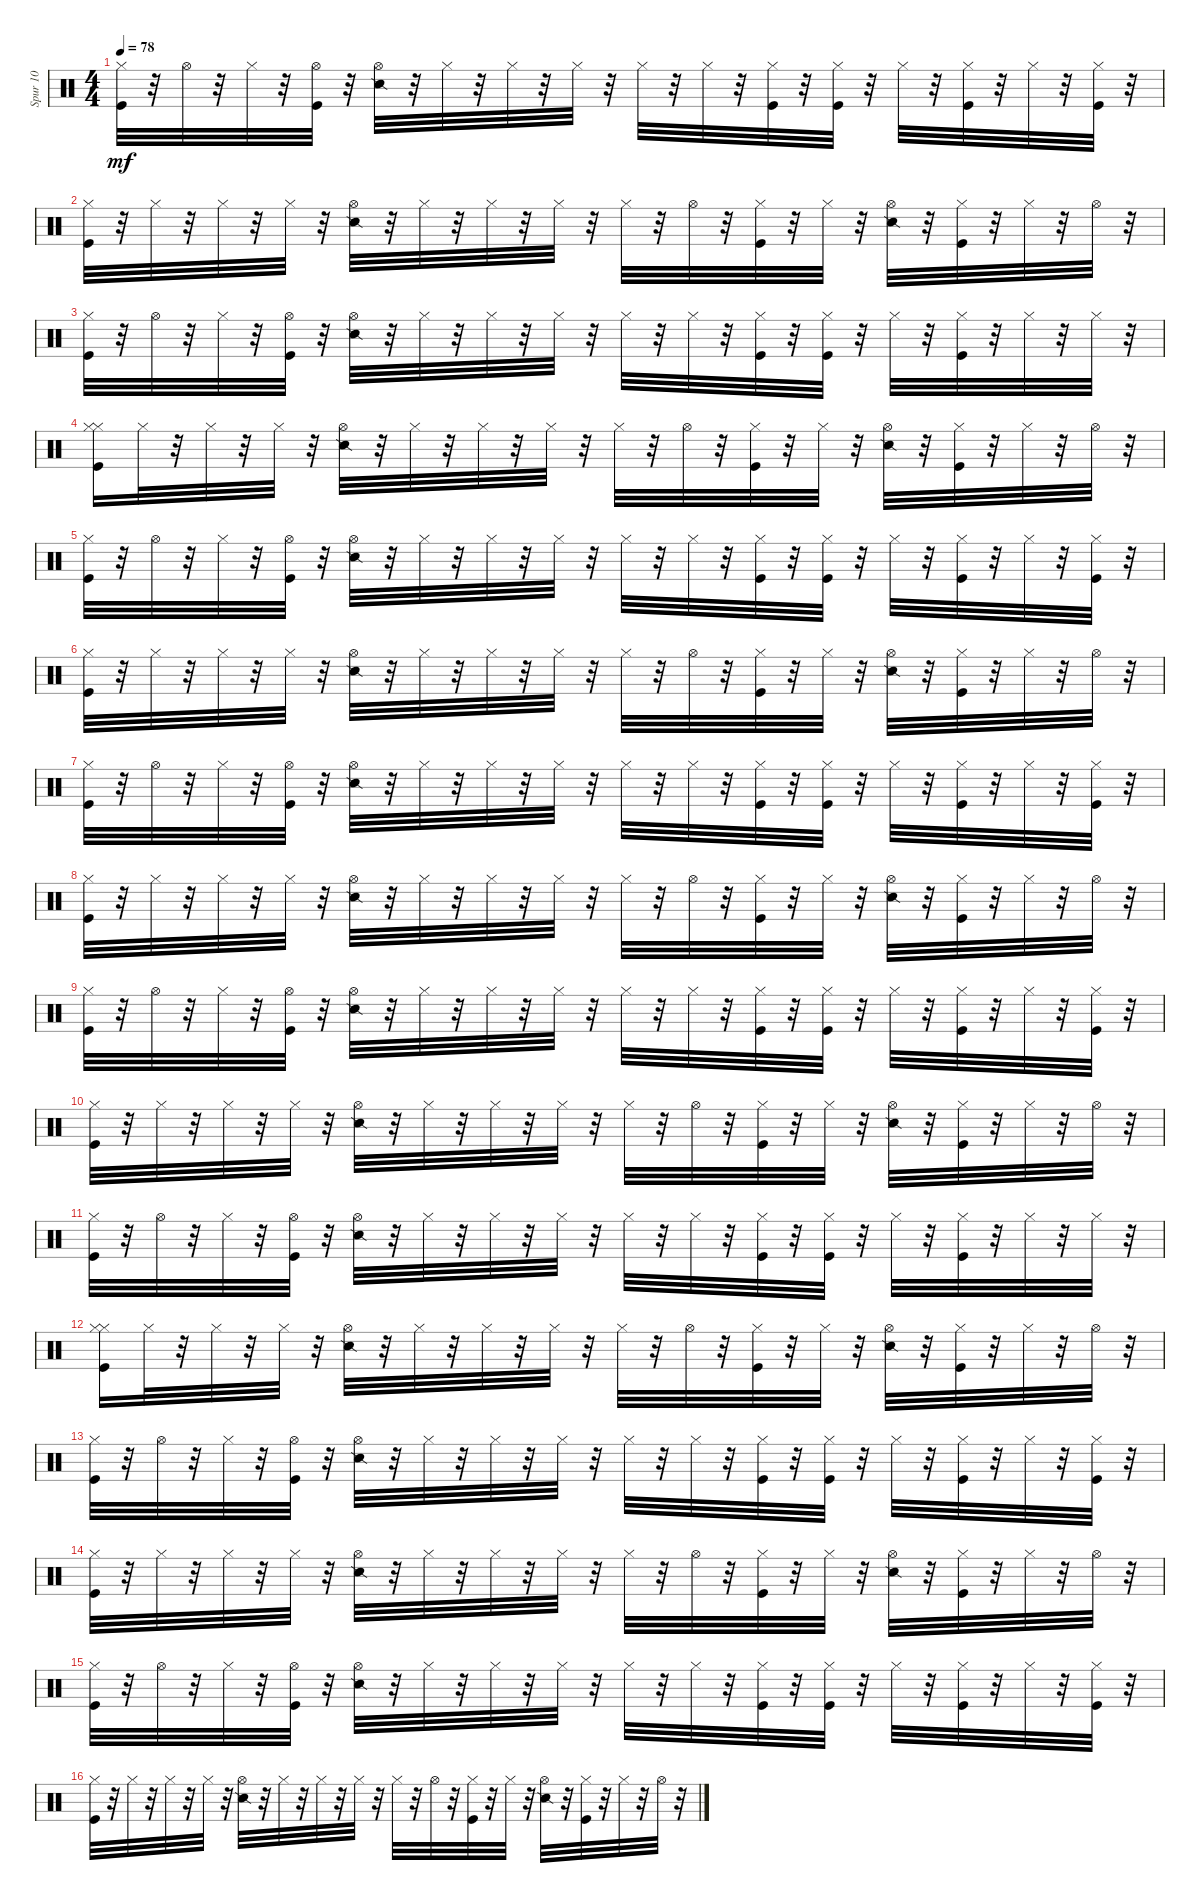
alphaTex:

\track ("Spur 10" "Spur 10") {instrument percussion}
\staff {score}
\articulation defaults
\ts (4 4)
\tempo 78
\clef neutral
\ks c
("Hi-Hat (closed)" "Kick (hit)").32{dy mf} r.32 "Hi-Hat (open)".32 r.32 "Hi-Hat (closed)".32 r.32 ("Hi-Hat (open)" "Kick (hit)").32 r.32 ("Hi-Hat (open)" "Snare (side stick) 2").32 r.32 "Hi-Hat (closed)".32 r.32 "Hi-Hat (closed)".32 r.32 "Hi-Hat (closed)".32 r.32 "Hi-Hat (closed)".32 r.32 "Hi-Hat (closed)".32 r.32 ("Hi-Hat (closed)" "Kick (hit)").32 r.32 ("Hi-Hat (closed)" "Kick (hit)").32 r.32 "Hi-Hat (closed)".32 r.32 ("Hi-Hat (closed)" "Kick (hit)").32 r.32 "Hi-Hat (closed)".32 r.32 ("Hi-Hat (closed)" "Kick (hit)").32 r.32 |
("Hi-Hat (closed)" "Kick (hit)").32 r.32 "Hi-Hat (closed)".32 r.32 "Hi-Hat (closed)".32 r.32 "Hi-Hat (closed)".32 r.32 ("Hi-Hat (open)" "Snare (side stick) 2").32 r.32 "Hi-Hat (closed)".32 r.32 "Hi-Hat (closed)".32 r.32 "Hi-Hat (closed)".32 r.32 "Hi-Hat (closed)".32 r.32 "Hi-Hat (open)".32 r.32 ("Hi-Hat (closed)" "Kick (hit)").32 r.32 "Hi-Hat (closed)".32 r.32 ("Hi-Hat (open)" "Snare (side stick) 2").32 r.32 ("Hi-Hat (closed)" "Kick (hit)").32 r.32 "Hi-Hat (closed)".32 r.32 "Hi-Hat (open)".32 r.32 |
("Hi-Hat (closed)" "Kick (hit)").32 r.32 "Hi-Hat (open)".32 r.32 "Hi-Hat (closed)".32 r.32 ("Hi-Hat (open)" "Kick (hit)").32 r.32 ("Hi-Hat (open)" "Snare (side stick) 2").32 r.32 "Hi-Hat (closed)".32 r.32 "Hi-Hat (closed)".32 r.32 "Hi-Hat (closed)".32 r.32 "Hi-Hat (closed)".32 r.32 "Hi-Hat (closed)".32 r.32 ("Kick (hit)" "Hi-Hat (closed)").32 r.32 ("Kick (hit)" "Hi-Hat (closed)").32 r.32 "Hi-Hat (closed)".32 r.32 ("Kick (hit)" "Hi-Hat (closed)").32 r.32 "Hi-Hat (closed)".32 r.32 "Hi-Hat (closed)".32 r.32 |
("Hi-Hat (closed)" "Kick (hit)" "Hi-Hat (closed)").16 "Hi-Hat (closed)".32 r.32 "Hi-Hat (closed)".32 r.32 "Hi-Hat (closed)".32 r.32 ("Hi-Hat (open)" "Snare (side stick) 2").32 r.32 "Hi-Hat (closed)".32 r.32 "Hi-Hat (closed)".32 r.32 "Hi-Hat (closed)".32 r.32 "Hi-Hat (closed)".32 r.32 "Hi-Hat (open)".32 r.32 ("Hi-Hat (closed)" "Kick (hit)").32 r.32 "Hi-Hat (closed)".32 r.32 ("Hi-Hat (open)" "Snare (side stick) 2").32 r.32 ("Hi-Hat (closed)" "Kick (hit)").32 r.32 "Hi-Hat (closed)".32 r.32 "Hi-Hat (open)".32 r.32 |
("Hi-Hat (closed)" "Kick (hit)").32 r.32 "Hi-Hat (open)".32 r.32 "Hi-Hat (closed)".32 r.32 ("Hi-Hat (open)" "Kick (hit)").32 r.32 ("Hi-Hat (open)" "Snare (side stick) 2").32 r.32 "Hi-Hat (closed)".32 r.32 "Hi-Hat (closed)".32 r.32 "Hi-Hat (closed)".32 r.32 "Hi-Hat (closed)".32 r.32 "Hi-Hat (closed)".32 r.32 ("Hi-Hat (closed)" "Kick (hit)").32 r.32 ("Hi-Hat (closed)" "Kick (hit)").32 r.32 "Hi-Hat (closed)".32 r.32 ("Hi-Hat (closed)" "Kick (hit)").32 r.32 "Hi-Hat (closed)".32 r.32 ("Hi-Hat (closed)" "Kick (hit)").32 r.32 |
("Hi-Hat (closed)" "Kick (hit)").32 r.32 "Hi-Hat (closed)".32 r.32 "Hi-Hat (closed)".32 r.32 "Hi-Hat (closed)".32 r.32 ("Hi-Hat (open)" "Snare (side stick) 2").32 r.32 "Hi-Hat (closed)".32 r.32 "Hi-Hat (closed)".32 r.32 "Hi-Hat (closed)".32 r.32 "Hi-Hat (closed)".32 r.32 "Hi-Hat (open)".32 r.32 ("Hi-Hat (closed)" "Kick (hit)").32 r.32 "Hi-Hat (closed)".32 r.32 ("Hi-Hat (open)" "Snare (side stick) 2").32 r.32 ("Hi-Hat (closed)" "Kick (hit)").32 r.32 "Hi-Hat (closed)".32 r.32 "Hi-Hat (open)".32 r.32 |
("Hi-Hat (closed)" "Kick (hit)").32 r.32 "Hi-Hat (open)".32 r.32 "Hi-Hat (closed)".32 r.32 ("Hi-Hat (open)" "Kick (hit)").32 r.32 ("Hi-Hat (open)" "Snare (side stick) 2").32 r.32 "Hi-Hat (closed)".32 r.32 "Hi-Hat (closed)".32 r.32 "Hi-Hat (closed)".32 r.32 "Hi-Hat (closed)".32 r.32 "Hi-Hat (closed)".32 r.32 ("Kick (hit)" "Hi-Hat (closed)").32 r.32 ("Hi-Hat (closed)" "Kick (hit)").32 r.32 "Hi-Hat (closed)".32 r.32 ("Hi-Hat (closed)" "Kick (hit)").32 r.32 "Hi-Hat (closed)".32 r.32 ("Hi-Hat (closed)" "Kick (hit)").32 r.32 |
("Hi-Hat (closed)" "Kick (hit)").32 r.32 "Hi-Hat (closed)".32 r.32 "Hi-Hat (closed)".32 r.32 "Hi-Hat (closed)".32 r.32 ("Hi-Hat (open)" "Snare (side stick) 2").32 r.32 "Hi-Hat (closed)".32 r.32 "Hi-Hat (closed)".32 r.32 "Hi-Hat (closed)".32 r.32 "Hi-Hat (closed)".32 r.32 "Hi-Hat (open)".32 r.32 ("Hi-Hat (closed)" "Kick (hit)").32 r.32 "Hi-Hat (closed)".32 r.32 ("Hi-Hat (open)" "Snare (side stick) 2").32 r.32 ("Hi-Hat (closed)" "Kick (hit)").32 r.32 "Hi-Hat (closed)".32 r.32 "Hi-Hat (open)".32 r.32 |
("Hi-Hat (closed)" "Kick (hit)").32 r.32 "Hi-Hat (open)".32 r.32 "Hi-Hat (closed)".32 r.32 ("Hi-Hat (open)" "Kick (hit)").32 r.32 ("Hi-Hat (open)" "Snare (side stick) 2").32 r.32 "Hi-Hat (closed)".32 r.32 "Hi-Hat (closed)".32 r.32 "Hi-Hat (closed)".32 r.32 "Hi-Hat (closed)".32 r.32 "Hi-Hat (closed)".32 r.32 ("Hi-Hat (closed)" "Kick (hit)").32 r.32 ("Hi-Hat (closed)" "Kick (hit)").32 r.32 "Hi-Hat (closed)".32 r.32 ("Hi-Hat (closed)" "Kick (hit)").32 r.32 "Hi-Hat (closed)".32 r.32 ("Hi-Hat (closed)" "Kick (hit)").32 r.32 |
("Hi-Hat (closed)" "Kick (hit)").32 r.32 "Hi-Hat (closed)".32 r.32 "Hi-Hat (closed)".32 r.32 "Hi-Hat (closed)".32 r.32 ("Hi-Hat (open)" "Snare (side stick) 2").32 r.32 "Hi-Hat (closed)".32 r.32 "Hi-Hat (closed)".32 r.32 "Hi-Hat (closed)".32 r.32 "Hi-Hat (closed)".32 r.32 "Hi-Hat (open)".32 r.32 ("Hi-Hat (closed)" "Kick (hit)").32 r.32 "Hi-Hat (closed)".32 r.32 ("Hi-Hat (open)" "Snare (side stick) 2").32 r.32 ("Hi-Hat (closed)" "Kick (hit)").32 r.32 "Hi-Hat (closed)".32 r.32 "Hi-Hat (open)".32 r.32 |
("Hi-Hat (closed)" "Kick (hit)").32 r.32 "Hi-Hat (open)".32 r.32 "Hi-Hat (closed)".32 r.32 ("Hi-Hat (open)" "Kick (hit)").32 r.32 ("Hi-Hat (open)" "Snare (side stick) 2").32 r.32 "Hi-Hat (closed)".32 r.32 "Hi-Hat (closed)".32 r.32 "Hi-Hat (closed)".32 r.32 "Hi-Hat (closed)".32 r.32 "Hi-Hat (closed)".32 r.32 ("Kick (hit)" "Hi-Hat (closed)").32 r.32 ("Kick (hit)" "Hi-Hat (closed)").32 r.32 "Hi-Hat (closed)".32 r.32 ("Kick (hit)" "Hi-Hat (closed)").32 r.32 "Hi-Hat (closed)".32 r.32 "Hi-Hat (closed)".32 r.32 |
("Hi-Hat (closed)" "Kick (hit)" "Hi-Hat (closed)").16 "Hi-Hat (closed)".32 r.32 "Hi-Hat (closed)".32 r.32 "Hi-Hat (closed)".32 r.32 ("Hi-Hat (open)" "Snare (side stick) 2").32 r.32 "Hi-Hat (closed)".32 r.32 "Hi-Hat (closed)".32 r.32 "Hi-Hat (closed)".32 r.32 "Hi-Hat (closed)".32 r.32 "Hi-Hat (open)".32 r.32 ("Hi-Hat (closed)" "Kick (hit)").32 r.32 "Hi-Hat (closed)".32 r.32 ("Hi-Hat (open)" "Snare (side stick) 2").32 r.32 ("Hi-Hat (closed)" "Kick (hit)").32 r.32 "Hi-Hat (closed)".32 r.32 "Hi-Hat (open)".32 r.32 |
("Hi-Hat (closed)" "Kick (hit)").32 r.32 "Hi-Hat (open)".32 r.32 "Hi-Hat (closed)".32 r.32 ("Hi-Hat (open)" "Kick (hit)").32 r.32 ("Hi-Hat (open)" "Snare (side stick) 2").32 r.32 "Hi-Hat (closed)".32 r.32 "Hi-Hat (closed)".32 r.32 "Hi-Hat (closed)".32 r.32 "Hi-Hat (closed)".32 r.32 "Hi-Hat (closed)".32 r.32 ("Hi-Hat (closed)" "Kick (hit)").32 r.32 ("Hi-Hat (closed)" "Kick (hit)").32 r.32 "Hi-Hat (closed)".32 r.32 ("Hi-Hat (closed)" "Kick (hit)").32 r.32 "Hi-Hat (closed)".32 r.32 ("Hi-Hat (closed)" "Kick (hit)").32 r.32 |
("Hi-Hat (closed)" "Kick (hit)").32 r.32 "Hi-Hat (closed)".32 r.32 "Hi-Hat (closed)".32 r.32 "Hi-Hat (closed)".32 r.32 ("Hi-Hat (open)" "Snare (side stick) 2").32 r.32 "Hi-Hat (closed)".32 r.32 "Hi-Hat (closed)".32 r.32 "Hi-Hat (closed)".32 r.32 "Hi-Hat (closed)".32 r.32 "Hi-Hat (open)".32 r.32 ("Hi-Hat (closed)" "Kick (hit)").32 r.32 "Hi-Hat (closed)".32 r.32 ("Hi-Hat (open)" "Snare (side stick) 2").32 r.32 ("Hi-Hat (closed)" "Kick (hit)").32 r.32 "Hi-Hat (closed)".32 r.32 "Hi-Hat (open)".32 r.32 |
("Hi-Hat (closed)" "Kick (hit)").32 r.32 "Hi-Hat (open)".32 r.32 "Hi-Hat (closed)".32 r.32 ("Hi-Hat (open)" "Kick (hit)").32 r.32 ("Hi-Hat (open)" "Snare (side stick) 2").32 r.32 "Hi-Hat (closed)".32 r.32 "Hi-Hat (closed)".32 r.32 "Hi-Hat (closed)".32 r.32 "Hi-Hat (closed)".32 r.32 "Hi-Hat (closed)".32 r.32 ("Kick (hit)" "Hi-Hat (closed)").32 r.32 ("Hi-Hat (closed)" "Kick (hit)").32 r.32 "Hi-Hat (closed)".32 r.32 ("Hi-Hat (closed)" "Kick (hit)").32 r.32 "Hi-Hat (closed)".32 r.32 ("Hi-Hat (closed)" "Kick (hit)").32 r.32 |
("Hi-Hat (closed)" "Kick (hit)").32 r.32 "Hi-Hat (closed)".32 r.32 "Hi-Hat (closed)".32 r.32 "Hi-Hat (closed)".32 r.32 ("Hi-Hat (open)" "Snare (side stick) 2").32 r.32 "Hi-Hat (closed)".32 r.32 "Hi-Hat (closed)".32 r.32 "Hi-Hat (closed)".32 r.32 "Hi-Hat (closed)".32 r.32 "Hi-Hat (open)".32 r.32 ("Hi-Hat (closed)" "Kick (hit)").32 r.32 "Hi-Hat (closed)".32 r.32 ("Hi-Hat (open)" "Snare (side stick) 2").32 r.32 ("Hi-Hat (closed)" "Kick (hit)").32 r.32 "Hi-Hat (closed)".32 r.32 "Hi-Hat (open)".32 r.32
